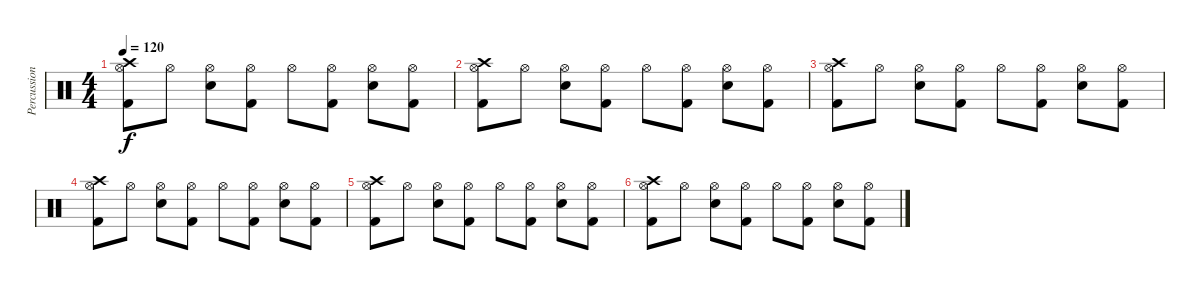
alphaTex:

\track ("Percussion" "Percussion") {instrument percussion}
\staff {score}
\articulation defaults
\ts (4 4)
\tempo 120
\clef neutral
\ks c
("Kick (hit) 2" "Hi-Hat (open)" "Crash high (hit)").8{dy f} "Hi-Hat (open)".8 ("Electric Snare (hit)" "Hi-Hat (open)").8 ("Kick (hit) 2" "Hi-Hat (open)").8 "Hi-Hat (open)".8 ("Kick (hit) 2" "Hi-Hat (open)").8 ("Electric Snare (hit)" "Hi-Hat (open)").8 ("Kick (hit) 2" "Hi-Hat (open)").8 |
("Kick (hit) 2" "Hi-Hat (open)" "Crash high (hit)").8 "Hi-Hat (open)".8 ("Electric Snare (hit)" "Hi-Hat (open)").8 ("Kick (hit) 2" "Hi-Hat (open)").8 "Hi-Hat (open)".8 ("Kick (hit) 2" "Hi-Hat (open)").8 ("Electric Snare (hit)" "Hi-Hat (open)").8 ("Kick (hit) 2" "Hi-Hat (open)").8 |
("Kick (hit) 2" "Hi-Hat (open)" "Crash high (hit)").8 "Hi-Hat (open)".8 ("Electric Snare (hit)" "Hi-Hat (open)").8 ("Kick (hit) 2" "Hi-Hat (open)").8 "Hi-Hat (open)".8 ("Kick (hit) 2" "Hi-Hat (open)").8 ("Electric Snare (hit)" "Hi-Hat (open)").8 ("Kick (hit) 2" "Hi-Hat (open)").8 |
("Kick (hit) 2" "Hi-Hat (open)" "Crash high (hit)").8 "Hi-Hat (open)".8 ("Electric Snare (hit)" "Hi-Hat (open)").8 ("Kick (hit) 2" "Hi-Hat (open)").8 "Hi-Hat (open)".8 ("Kick (hit) 2" "Hi-Hat (open)").8 ("Electric Snare (hit)" "Hi-Hat (open)").8 ("Kick (hit) 2" "Hi-Hat (open)").8 |
("Kick (hit) 2" "Hi-Hat (open)" "Crash high (hit)").8 "Hi-Hat (open)".8 ("Electric Snare (hit)" "Hi-Hat (open)").8 ("Kick (hit) 2" "Hi-Hat (open)").8 "Hi-Hat (open)".8 ("Kick (hit) 2" "Hi-Hat (open)").8 ("Electric Snare (hit)" "Hi-Hat (open)").8 ("Kick (hit) 2" "Hi-Hat (open)").8 |
("Kick (hit) 2" "Hi-Hat (open)" "Crash high (hit)").8 "Hi-Hat (open)".8 ("Electric Snare (hit)" "Hi-Hat (open)").8 ("Kick (hit) 2" "Hi-Hat (open)").8 "Hi-Hat (open)".8 ("Kick (hit) 2" "Hi-Hat (open)").8 ("Electric Snare (hit)" "Hi-Hat (open)").8 ("Kick (hit) 2" "Hi-Hat (open)").8
